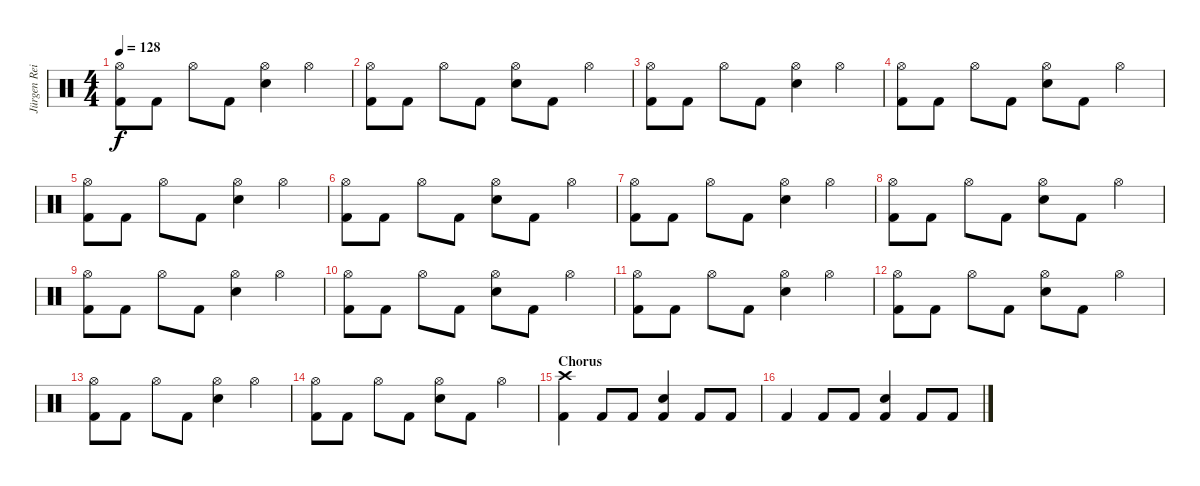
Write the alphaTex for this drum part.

\track ("Jürgen Reil [drums]" "Jürgen Rei") {instrument percussion}
\staff {score}
\articulation defaults
\ts (4 4)
\tempo 128
\clef neutral
\ks c
("Hi-Hat (open)" "Kick (hit) 2").8{dy f} "Kick (hit) 2".8 "Hi-Hat (open)".8 "Kick (hit) 2".8 ("Hi-Hat (open)" "Electric Snare (hit)").4 "Hi-Hat (open)".4 |
("Hi-Hat (open)" "Kick (hit) 2").8 "Kick (hit) 2".8 "Hi-Hat (open)".8 "Kick (hit) 2".8 ("Hi-Hat (open)" "Electric Snare (hit)").8 "Kick (hit) 2".8 "Hi-Hat (open)".4 |
("Hi-Hat (open)" "Kick (hit) 2").8 "Kick (hit) 2".8 "Hi-Hat (open)".8 "Kick (hit) 2".8 ("Hi-Hat (open)" "Electric Snare (hit)").4 "Hi-Hat (open)".4 |
("Hi-Hat (open)" "Kick (hit) 2").8 "Kick (hit) 2".8 "Hi-Hat (open)".8 "Kick (hit) 2".8 ("Hi-Hat (open)" "Electric Snare (hit)").8 "Kick (hit) 2".8 "Hi-Hat (open)".4 |
("Hi-Hat (open)" "Kick (hit) 2").8 "Kick (hit) 2".8 "Hi-Hat (open)".8 "Kick (hit) 2".8 ("Hi-Hat (open)" "Electric Snare (hit)").4 "Hi-Hat (open)".4 |
("Hi-Hat (open)" "Kick (hit) 2").8 "Kick (hit) 2".8 "Hi-Hat (open)".8 "Kick (hit) 2".8 ("Hi-Hat (open)" "Electric Snare (hit)").8 "Kick (hit) 2".8 "Hi-Hat (open)".4 |
("Hi-Hat (open)" "Kick (hit) 2").8 "Kick (hit) 2".8 "Hi-Hat (open)".8 "Kick (hit) 2".8 ("Hi-Hat (open)" "Electric Snare (hit)").4 "Hi-Hat (open)".4 |
("Hi-Hat (open)" "Kick (hit) 2").8 "Kick (hit) 2".8 "Hi-Hat (open)".8 "Kick (hit) 2".8 ("Hi-Hat (open)" "Electric Snare (hit)").8 "Kick (hit) 2".8 "Hi-Hat (open)".4 |
("Hi-Hat (open)" "Kick (hit) 2").8 "Kick (hit) 2".8 "Hi-Hat (open)".8 "Kick (hit) 2".8 ("Hi-Hat (open)" "Electric Snare (hit)").4 "Hi-Hat (open)".4 |
("Hi-Hat (open)" "Kick (hit) 2").8 "Kick (hit) 2".8 "Hi-Hat (open)".8 "Kick (hit) 2".8 ("Hi-Hat (open)" "Electric Snare (hit)").8 "Kick (hit) 2".8 "Hi-Hat (open)".4 |
("Hi-Hat (open)" "Kick (hit) 2").8 "Kick (hit) 2".8 "Hi-Hat (open)".8 "Kick (hit) 2".8 ("Hi-Hat (open)" "Electric Snare (hit)").4 "Hi-Hat (open)".4 |
("Hi-Hat (open)" "Kick (hit) 2").8 "Kick (hit) 2".8 "Hi-Hat (open)".8 "Kick (hit) 2".8 ("Hi-Hat (open)" "Electric Snare (hit)").8 "Kick (hit) 2".8 "Hi-Hat (open)".4 |
("Hi-Hat (open)" "Kick (hit) 2").8 "Kick (hit) 2".8 "Hi-Hat (open)".8 "Kick (hit) 2".8 ("Hi-Hat (open)" "Electric Snare (hit)").4 "Hi-Hat (open)".4 |
("Hi-Hat (open)" "Kick (hit) 2").8 "Kick (hit) 2".8 "Hi-Hat (open)".8 "Kick (hit) 2".8 ("Hi-Hat (open)" "Electric Snare (hit)").8 "Kick (hit) 2".8 "Hi-Hat (open)".4 |
\section ("" "Chorus")
("Crash high (hit)" "Kick (hit) 2").4 "Kick (hit) 2".8 "Kick (hit) 2".8 ("Electric Snare (hit)" "Kick (hit) 2").4 "Kick (hit) 2".8 "Kick (hit) 2".8 |
"Kick (hit) 2".4 "Kick (hit) 2".8 "Kick (hit) 2".8 ("Electric Snare (hit)" "Kick (hit) 2").4 "Kick (hit) 2".8 "Kick (hit) 2".8
